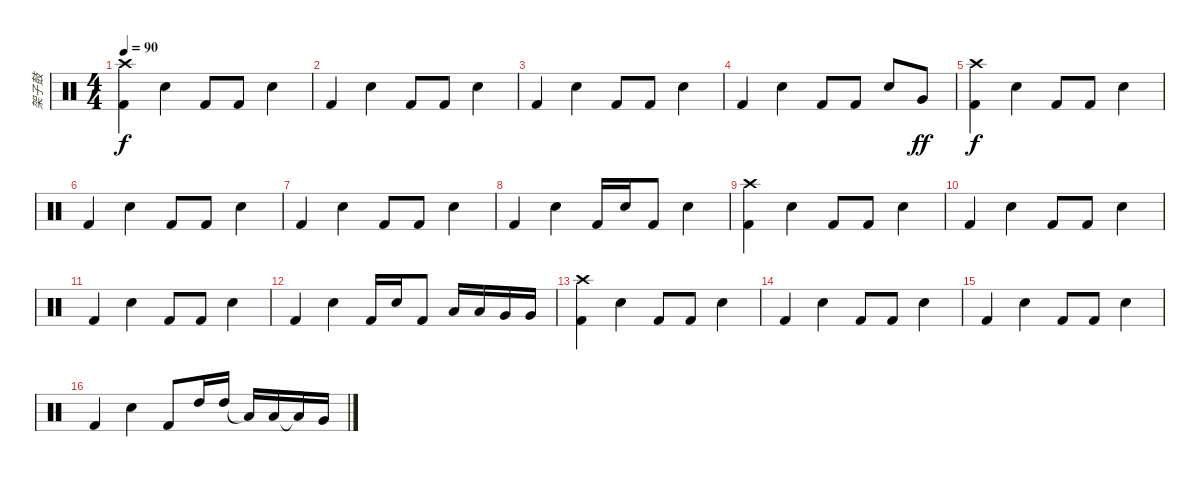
\track ("架子鼓" "架子鼓") {instrument percussion}
\staff {score}
\articulation defaults
\ts (4 4)
\tempo 90
\clef neutral
\ks c
("Kick (hit) 2" "Crash high (hit)").4{dy f} "Electric Snare (hit)".4 "Kick (hit) 2".8 "Kick (hit) 2".8 "Electric Snare (hit)".4 |
"Kick (hit) 2".4 "Electric Snare (hit)".4 "Kick (hit) 2".8 "Kick (hit) 2".8 "Electric Snare (hit)".4 |
"Kick (hit) 2".4 "Electric Snare (hit)".4 "Kick (hit) 2".8 "Kick (hit) 2".8 "Electric Snare (hit)".4 |
"Kick (hit) 2".4 "Electric Snare (hit)".4 "Kick (hit) 2".8 "Kick (hit) 2".8 "Electric Snare (hit)".8 "Very Low Tom (hit)".8{dy ff} |
("Kick (hit) 2" "Crash high (hit)").4{dy f} "Electric Snare (hit)".4 "Kick (hit) 2".8 "Kick (hit) 2".8 "Electric Snare (hit)".4 |
"Kick (hit) 2".4 "Electric Snare (hit)".4 "Kick (hit) 2".8 "Kick (hit) 2".8 "Electric Snare (hit)".4 |
"Kick (hit) 2".4 "Electric Snare (hit)".4 "Kick (hit) 2".8 "Kick (hit) 2".8 "Electric Snare (hit)".4 |
"Kick (hit) 2".4 "Electric Snare (hit)".4 "Kick (hit) 2".16 "Electric Snare (hit)".16 "Kick (hit) 2".8 "Electric Snare (hit)".4 |
("Kick (hit) 2" "Crash high (hit)").4 "Electric Snare (hit)".4 "Kick (hit) 2".8 "Kick (hit) 2".8 "Electric Snare (hit)".4 |
"Kick (hit) 2".4 "Electric Snare (hit)".4 "Kick (hit) 2".8 "Kick (hit) 2".8 "Electric Snare (hit)".4 |
"Kick (hit) 2".4 "Electric Snare (hit)".4 "Kick (hit) 2".8 "Kick (hit) 2".8 "Electric Snare (hit)".4 |
"Kick (hit) 2".4 "Electric Snare (hit)".4 "Kick (hit) 2".16 "Electric Snare (hit)".16 "Kick (hit) 2".8 "Low Tom (hit)".16 "Low Tom (hit)".16 "Very Low Tom (hit)".16 "Very Low Tom (hit)".16 |
("Kick (hit) 2" "Crash high (hit)").4 "Electric Snare (hit)".4 "Kick (hit) 2".8 "Kick (hit) 2".8 "Electric Snare (hit)".4 |
"Kick (hit) 2".4 "Electric Snare (hit)".4 "Kick (hit) 2".8 "Kick (hit) 2".8 "Electric Snare (hit)".4 |
"Kick (hit) 2".4 "Electric Snare (hit)".4 "Kick (hit) 2".8 "Kick (hit) 2".8 "Electric Snare (hit)".4 |
"Kick (hit) 2".4 "Electric Snare (hit)".4 "Kick (hit) 2".8 "High Tom (hit)".16 "High Tom (hit)".16 "Low Tom (hit)"{t}.16 "Low Tom (hit)".16 "Low Tom (hit)"{t}.16 "Very Low Tom (hit)".16
